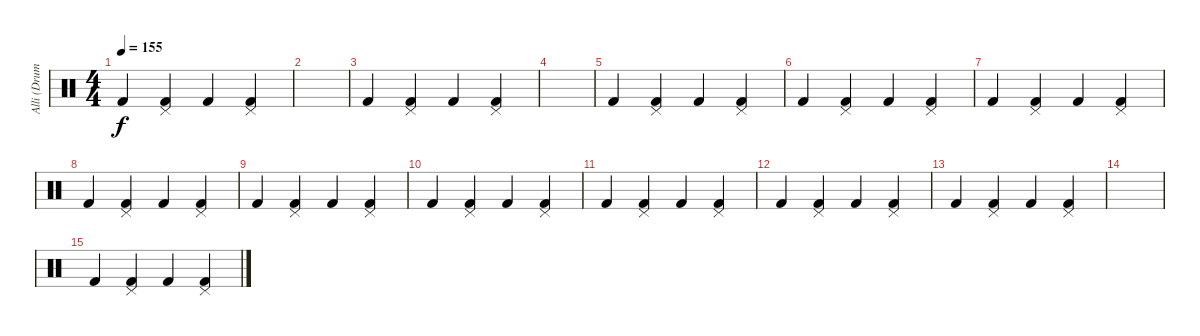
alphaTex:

\track ("Alli (Drums)" "Alli (Drum") {instrument percussion}
\staff {score}
\articulation defaults
\ts (4 4)
\tempo 155
\clef neutral
\ks c "Kick (hit) 2".4{dy f}
("Pedal Hi-Hat (hit)" "Kick (hit) 2").4 "Kick (hit) 2".4 ("Pedal Hi-Hat (hit)" "Kick (hit) 2").4 |
|
"Kick (hit) 2".4 ("Pedal Hi-Hat (hit)" "Kick (hit) 2").4 "Kick (hit) 2".4 ("Pedal Hi-Hat (hit)" "Kick (hit) 2").4 |
|
"Kick (hit) 2".4 ("Pedal Hi-Hat (hit)" "Kick (hit) 2").4 "Kick (hit) 2".4 ("Pedal Hi-Hat (hit)" "Kick (hit) 2").4 |
"Kick (hit) 2".4 ("Pedal Hi-Hat (hit)" "Kick (hit) 2").4 "Kick (hit) 2".4 ("Pedal Hi-Hat (hit)" "Kick (hit) 2").4 |
"Kick (hit) 2".4 ("Pedal Hi-Hat (hit)" "Kick (hit) 2").4 "Kick (hit) 2".4 ("Pedal Hi-Hat (hit)" "Kick (hit) 2").4 |
"Kick (hit) 2".4 ("Pedal Hi-Hat (hit)" "Kick (hit) 2").4 "Kick (hit) 2".4 ("Pedal Hi-Hat (hit)" "Kick (hit) 2").4 |
"Kick (hit) 2".4 ("Pedal Hi-Hat (hit)" "Kick (hit) 2").4 "Kick (hit) 2".4 ("Pedal Hi-Hat (hit)" "Kick (hit) 2").4 |
"Kick (hit) 2".4 ("Pedal Hi-Hat (hit)" "Kick (hit) 2").4 "Kick (hit) 2".4 ("Pedal Hi-Hat (hit)" "Kick (hit) 2").4 |
"Kick (hit) 2".4 ("Pedal Hi-Hat (hit)" "Kick (hit) 2").4 "Kick (hit) 2".4 ("Pedal Hi-Hat (hit)" "Kick (hit) 2").4 |
"Kick (hit) 2".4 ("Pedal Hi-Hat (hit)" "Kick (hit) 2").4 "Kick (hit) 2".4 ("Pedal Hi-Hat (hit)" "Kick (hit) 2").4 |
"Kick (hit) 2".4 ("Pedal Hi-Hat (hit)" "Kick (hit) 2").4 "Kick (hit) 2".4 ("Pedal Hi-Hat (hit)" "Kick (hit) 2").4 |
|
"Kick (hit) 2".4 ("Pedal Hi-Hat (hit)" "Kick (hit) 2").4 "Kick (hit) 2".4 ("Pedal Hi-Hat (hit)" "Kick (hit) 2").4
